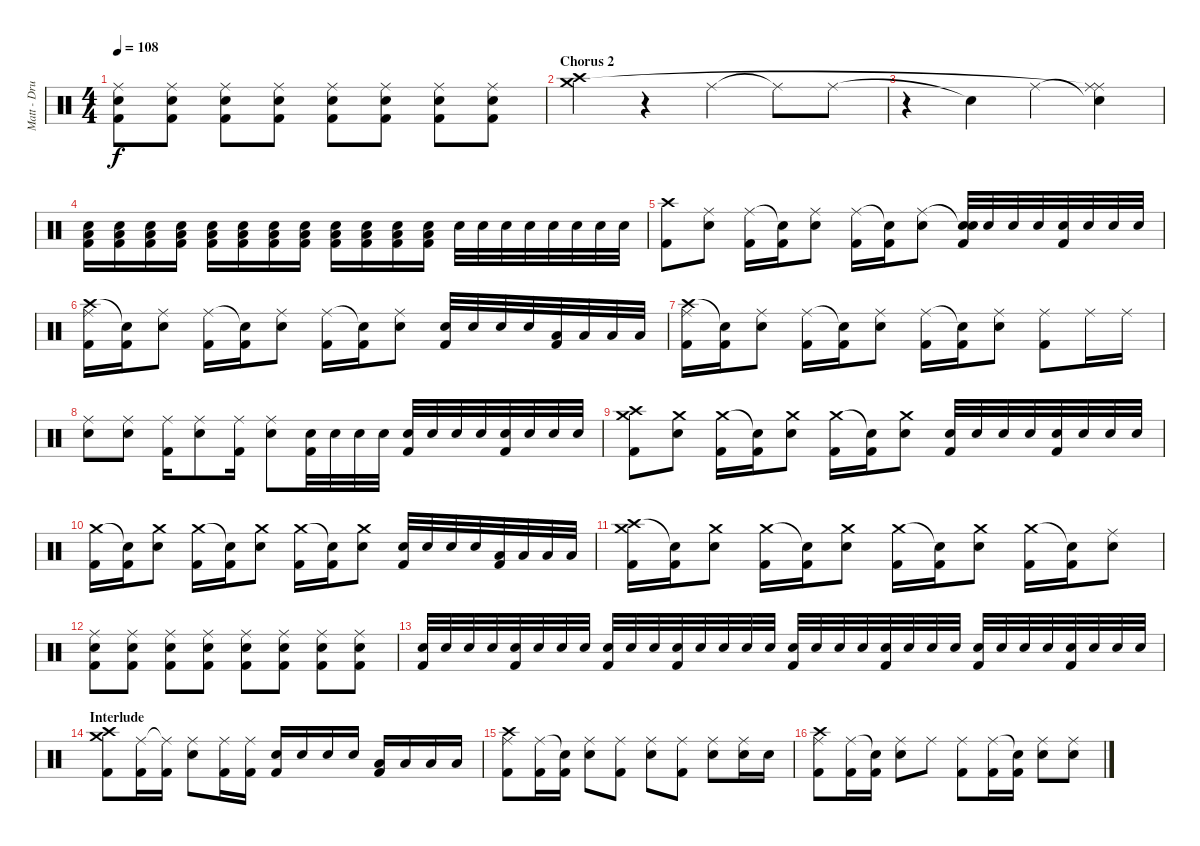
\track ("Matt - Drums" "Matt - Dru") {instrument percussion}
\staff {score}
\articulation defaults
\ts (4 4)
\tempo 108
\clef neutral
\ks c
("Ride (middle)" "Snare (hit) 2" "Kick (hit) 2").8{dy f} ("Ride (middle)" "Snare (hit) 2" "Kick (hit) 2").8 ("Ride (middle)" "Snare (hit) 2" "Kick (hit) 2").8 ("Ride (middle)" "Snare (hit) 2" "Kick (hit) 2").8 ("Ride (middle)" "Snare (hit) 2" "Kick (hit) 2").8 ("Ride (middle)" "Snare (hit) 2" "Kick (hit) 2").8 ("Ride (middle)" "Snare (hit) 2" "Kick (hit) 2").8 ("Ride (middle)" "Snare (hit) 2" "Kick (hit) 2").8 |
\section ("" "Chorus 2")
("Crash high (hit)" "Crash medium (hit)").4 r.4 "Ride (middle)".4 "Ride (middle)"{t}.8 "Ride (middle)".8 |
r.4 "Snare (hit)"{t}.4 "Ride (middle)".4 ("Snare (hit)"{t} "Ride (middle)"{t} "Ride (middle)").4 |
("Snare (hit) 2" "Low Floor Tom (hit)" "Kick (hit) 2").16 ("Snare (hit) 2" "Low Floor Tom (hit)" "Kick (hit) 2").16 ("Snare (hit) 2" "Low Floor Tom (hit)" "Kick (hit) 2").16 ("Snare (hit) 2" "Low Floor Tom (hit)" "Kick (hit) 2").16 ("Snare (hit) 2" "Low Floor Tom (hit)" "Kick (hit) 2").16 ("Snare (hit) 2" "Low Floor Tom (hit)" "Kick (hit) 2").16 ("Snare (hit) 2" "Low Floor Tom (hit)" "Kick (hit) 2").16 ("Snare (hit) 2" "Low Floor Tom (hit)" "Kick (hit) 2").16 ("Snare (hit) 2" "Low Floor Tom (hit)" "Kick (hit) 2").16 ("Snare (hit) 2" "Low Floor Tom (hit)" "Kick (hit) 2").16 ("Snare (hit) 2" "Low Floor Tom (hit)" "Kick (hit) 2").16 ("Snare (hit) 2" "Low Floor Tom (hit)" "Kick (hit) 2").16 "Snare (hit) 2".32 "Snare (hit) 2".32 "Snare (hit) 2".32 "Snare (hit) 2".32 "Snare (hit) 2".32 "Snare (hit) 2".32 "Snare (hit) 2".32 "Snare (hit) 2".32 |
("Crash high (hit)" "Kick (hit) 2").8 ("Ride (middle)" "Snare (hit) 2").8 ("Ride (middle)" "Kick (hit) 2").16 ("Snare (hit)"{t} "Kick (hit) 2").16 ("Ride (middle)" "Snare (hit) 2").8 ("Ride (middle)" "Kick (hit) 2").16 ("Snare (hit)"{t} "Kick (hit) 2").16 ("Ride (middle)" "Snare (hit) 2").8 ("Snare (hit)"{t} "Snare (hit) 2" "Kick (hit) 2").32 "Snare (hit) 2".32 "Snare (hit) 2".32 "Snare (hit) 2".32 ("Snare (hit) 2" "Kick (hit) 2").32 "Snare (hit) 2".32 "Snare (hit) 2".32 "Snare (hit) 2".32 |
("Crash high (hit)" "Ride (middle)" "Kick (hit) 2").16 ("Snare (hit)"{t} "Kick (hit) 2").16 ("Ride (middle)" "Snare (hit) 2").8 ("Ride (middle)" "Kick (hit) 2").16 ("Snare (hit)"{t} "Kick (hit) 2").16 ("Ride (middle)" "Snare (hit) 2").8 ("Ride (middle)" "Kick (hit) 2").16 ("Snare (hit)"{t} "Kick (hit) 2").16 ("Ride (middle)" "Snare (hit) 2").8 ("Snare (hit) 2" "Kick (hit) 2").32 "Snare (hit) 2".32 "Snare (hit) 2".32 "Snare (hit) 2".32 ("Low Tom (hit)" "Kick (hit) 2").32 "Low Tom (hit)".32 "Low Floor Tom (hit)".32 "Low Floor Tom (hit)".32 |
("Crash high (hit)" "Ride (middle)" "Kick (hit) 2").16 ("Snare (hit)"{t} "Kick (hit) 2").16 ("Ride (middle)" "Snare (hit) 2").8 ("Ride (middle)" "Kick (hit) 2").16 ("Snare (hit)"{t} "Kick (hit) 2").16 ("Ride (middle)" "Snare (hit) 2").8 ("Ride (middle)" "Kick (hit) 2").16 ("Snare (hit)"{t} "Kick (hit) 2").16 ("Ride (middle)" "Snare (hit) 2").8 ("Ride (middle)" "Kick (hit) 2").8 "Ride (middle)".16 "Ride (middle)".16 |
("Ride (middle)" "Snare (hit) 2").8 ("Ride (middle)" "Snare (hit) 2").8 ("Ride (middle)" "Kick (hit) 2").16 ("Ride (middle)" "Snare (hit) 2").8 ("Ride (middle)" "Kick (hit) 2").16 ("Ride (middle)" "Snare (hit) 2").8 ("Snare (hit) 2" "Kick (hit) 2").32 "Snare (hit) 2".32 "Snare (hit) 2".32 "Snare (hit) 2".32 ("Snare (hit) 2" "Kick (hit) 2").32 "Snare (hit) 2".32 "Snare (hit) 2".32 "Snare (hit) 2".32 ("Snare (hit) 2" "Kick (hit) 2").32 "Snare (hit) 2".32 "Snare (hit) 2".32 "Snare (hit) 2".32 |
("Crash high (hit)" "Crash medium (hit)" "Kick (hit) 2").8 ("Crash medium (hit)" "Snare (hit) 2").8 ("Crash medium (hit)" "Kick (hit) 2").16 ("Snare (hit)"{t} "Kick (hit) 2").16 ("Crash medium (hit)" "Snare (hit) 2").8 ("Crash medium (hit)" "Kick (hit) 2").16 ("Snare (hit)"{t} "Kick (hit) 2").16 ("Crash medium (hit)" "Snare (hit) 2").8 ("Snare (hit) 2" "Kick (hit) 2").32 "Snare (hit) 2".32 "Snare (hit) 2".32 "Snare (hit) 2".32 ("Snare (hit) 2" "Kick (hit) 2").32 "Snare (hit) 2".32 "Snare (hit) 2".32 "Snare (hit) 2".32 |
("Crash medium (hit)" "Kick (hit) 2").16 ("Snare (hit)"{t} "Kick (hit) 2").16 ("Crash medium (hit)" "Snare (hit) 2").8 ("Crash medium (hit)" "Kick (hit) 2").16 ("Snare (hit)"{t} "Kick (hit) 2").16 ("Crash medium (hit)" "Snare (hit) 2").8 ("Crash medium (hit)" "Kick (hit) 2").16 ("Snare (hit)"{t} "Kick (hit) 2").16 ("Crash medium (hit)" "Snare (hit) 2").8 ("Snare (hit) 2" "Kick (hit) 2").32 "Snare (hit) 2".32 "Snare (hit) 2".32 "Snare (hit) 2".32 ("Low Tom (hit)" "Kick (hit) 2").32 "Low Tom (hit)".32 "Low Floor Tom (hit)".32 "Low Floor Tom (hit)".32 |
("Crash high (hit)" "Crash medium (hit)" "Kick (hit) 2").16 ("Snare (hit)"{t} "Kick (hit) 2").16 ("Crash medium (hit)" "Snare (hit) 2").8 ("Crash medium (hit)" "Kick (hit) 2").16 ("Snare (hit)"{t} "Kick (hit) 2").16 ("Crash medium (hit)" "Snare (hit) 2").8 ("Crash medium (hit)" "Kick (hit) 2").16 ("Snare (hit)"{t} "Kick (hit) 2").16 ("Crash medium (hit)" "Snare (hit) 2").8 ("Crash medium (hit)" "Kick (hit) 2").16 ("Snare (hit)"{t} "Kick (hit) 2").16 ("Ride (middle)" "Snare (hit) 2").8 |
("Ride (middle)" "Snare (hit) 2" "Kick (hit) 2").8 ("Ride (middle)" "Snare (hit) 2" "Kick (hit) 2").8 ("Ride (middle)" "Snare (hit) 2" "Kick (hit) 2").8 ("Ride (middle)" "Snare (hit) 2" "Kick (hit) 2").8 ("Ride (middle)" "Snare (hit) 2" "Kick (hit) 2").8 ("Ride (middle)" "Snare (hit) 2" "Kick (hit) 2").8 ("Ride (middle)" "Snare (hit) 2" "Kick (hit) 2").8 ("Ride (middle)" "Snare (hit) 2" "Kick (hit) 2").8 |
("Snare (hit) 2" "Kick (hit) 2").32 "Snare (hit) 2".32 "Snare (hit) 2".32 "Snare (hit) 2".32 ("Snare (hit) 2" "Kick (hit) 2").32 "Snare (hit) 2".32 "Snare (hit) 2".32 "Snare (hit) 2".32 ("Snare (hit) 2" "Kick (hit) 2").32 "Snare (hit) 2".32 "Snare (hit) 2".32 ("Snare (hit) 2" "Kick (hit) 2").32 "Snare (hit) 2".32 "Snare (hit) 2".32 "Snare (hit) 2".32 "Snare (hit) 2".32 ("Snare (hit) 2" "Kick (hit) 2").32 "Snare (hit) 2".32 "Snare (hit) 2".32 "Snare (hit) 2".32 ("Snare (hit) 2" "Kick (hit) 2").32 "Snare (hit) 2".32 "Snare (hit) 2".32 "Snare (hit) 2".32 ("Snare (hit) 2" "Kick (hit) 2").32 "Snare (hit) 2".32 "Snare (hit) 2".32 "Snare (hit) 2".32 ("Snare (hit) 2" "Kick (hit) 2").32 "Snare (hit) 2".32 "Snare (hit) 2".32 "Snare (hit) 2".32 |
\section ("" "Interlude")
("Crash high (hit)" "Crash medium (hit)" "Kick (hit) 2").8 ("Ride (middle)" "Kick (hit) 2").16 ("Ride (middle)"{t} "Kick (hit) 2").16 ("Ride (middle)" "Snare (hit) 2").8 ("Ride (middle)" "Kick (hit) 2").16 ("Ride (middle)" "Kick (hit) 2").16 ("Snare (hit) 2" "Kick (hit) 2").16 "Snare (hit) 2".16 "Snare (hit) 2".16 "Snare (hit) 2".16 ("Low Tom (hit)" "Kick (hit) 2").16 "Low Tom (hit)".16 "Low Floor Tom (hit)".16 "Low Floor Tom (hit)".16 |
("Crash high (hit)" "Ride (middle)" "Kick (hit) 2").8 ("Ride (middle)" "Kick (hit) 2").16 ("Snare (hit)"{t} "Kick (hit) 2").16 ("Ride (middle)" "Snare (hit) 2").8 ("Ride (middle)" "Kick (hit) 2").8 ("Ride (middle)" "Snare (hit) 2").8 ("Ride (middle)" "Kick (hit) 2").8 ("Ride (middle)" "Snare (hit) 2").8 ("Ride (middle)" "Snare (hit) 2").16 "Snare (hit) 2".16 |
("Crash high (hit)" "Ride (middle)" "Kick (hit) 2").8 ("Ride (middle)" "Kick (hit) 2").16 ("Snare (hit)"{t} "Kick (hit) 2").16 ("Ride (middle)" "Snare (hit) 2").8 "Ride (middle)".8 ("Ride (middle)" "Kick (hit) 2").8 ("Ride (middle)" "Kick (hit) 2").16 ("Snare (hit)"{t} "Kick (hit) 2").16 ("Ride (middle)" "Snare (hit) 2").8 ("Ride (middle)" "Snare (hit) 2").8
